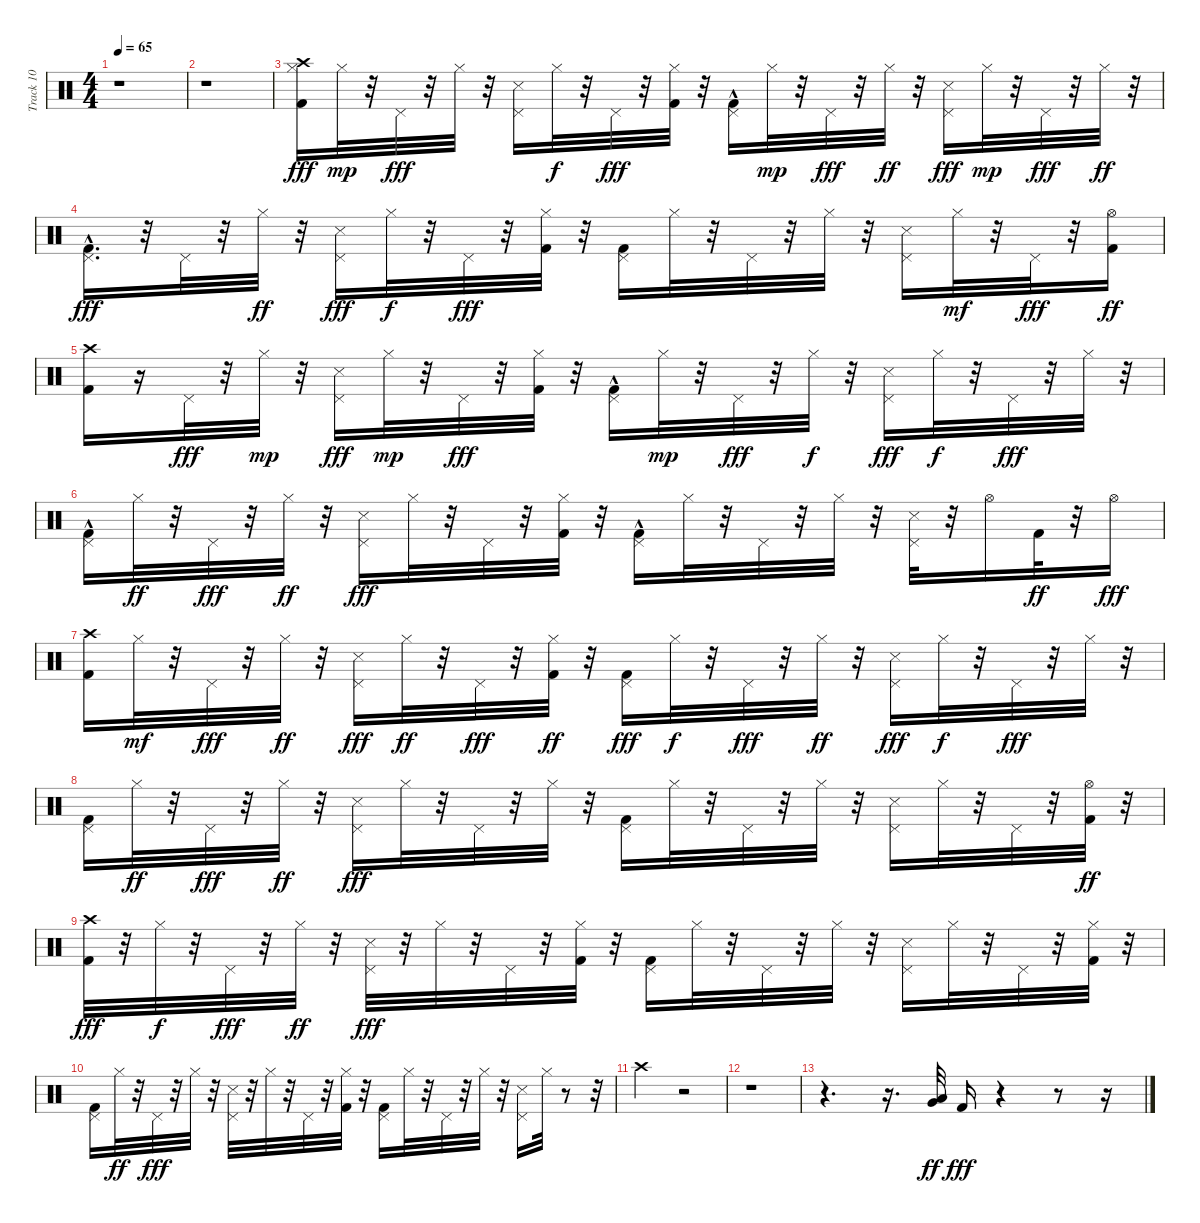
\track ("Track 10" "Track 10") {instrument percussion}
\staff {score}
\articulation defaults
\ts (4 4)
\tempo 65
\clef neutral
\ks c
r.1{dy fff} |
r.1 |
("Kick (hit) 2" "Hi-Hat (closed)" "Crash high (hit)").16 "Hi-Hat (closed)".32{dy mp} r.32 "Pedal Hi-Hat (hit)".32{dy fff} r.32 "Hi-Hat (closed)".32 r.32 ("Snare (side stick) 3" "Pedal Hi-Hat (hit)").16 "Hi-Hat (closed)".32{dy f} r.32 "Pedal Hi-Hat (hit)".32{dy fff} r.32 ("Kick (hit) 2" "Hi-Hat (closed)").32 r.32 ("Kick (hit) 2"{hac} "Pedal Hi-Hat (hit)").16 "Hi-Hat (closed)".32{dy mp} r.32 "Pedal Hi-Hat (hit)".32{dy fff} r.32 "Hi-Hat (closed)".32{dy ff} r.32 ("Snare (side stick) 3" "Pedal Hi-Hat (hit)").16{dy fff} "Hi-Hat (closed)".32{dy mp} r.32 "Pedal Hi-Hat (hit)".32{dy fff} r.32 "Hi-Hat (closed)".32{dy ff} r.32 |
("Kick (hit) 2"{hac} "Pedal Hi-Hat (hit)").16{d dy fff} r.32 "Pedal Hi-Hat (hit)".32 r.32 "Hi-Hat (closed)".32{dy ff} r.32 ("Snare (side stick) 3" "Pedal Hi-Hat (hit)").16{dy fff} "Hi-Hat (closed)".32{dy f} r.32 "Pedal Hi-Hat (hit)".32{dy fff} r.32 ("Hi-Hat (closed)" "Kick (hit) 2").32 r.32 ("Pedal Hi-Hat (hit)" "Kick (hit) 2").16 "Hi-Hat (closed)".32 r.32 "Pedal Hi-Hat (hit)".32 r.32 "Hi-Hat (closed)".32 r.32 ("Pedal Hi-Hat (hit)" "Snare (side stick) 3").16 "Hi-Hat (closed)".32{dy mf} r.32 "Pedal Hi-Hat (hit)".32{dy fff} r.32 ("Hi-Hat (open)" "Kick (hit) 2").16{dy ff} |
("Kick (hit) 2" "Crash high (hit)").16 r.16 "Pedal Hi-Hat (hit)".32{dy fff} r.32 "Hi-Hat (closed)".32{dy mp} r.32 ("Snare (side stick) 3" "Pedal Hi-Hat (hit)").16{dy fff} "Hi-Hat (closed)".32{dy mp} r.32 "Pedal Hi-Hat (hit)".32{dy fff} r.32 ("Kick (hit) 2" "Hi-Hat (closed)").32 r.32 ("Pedal Hi-Hat (hit)" "Kick (hit) 2"{hac}).16 "Hi-Hat (closed)".32{dy mp} r.32 "Pedal Hi-Hat (hit)".32{dy fff} r.32 "Hi-Hat (closed)".32{dy f} r.32 ("Snare (side stick) 3" "Pedal Hi-Hat (hit)").16{dy fff} "Hi-Hat (closed)".32{dy f} r.32 "Pedal Hi-Hat (hit)".32{dy fff} r.32 "Hi-Hat (closed)".32 r.32 |
("Kick (hit) 2"{hac} "Pedal Hi-Hat (hit)").16 "Hi-Hat (closed)".32{dy ff} r.32 "Pedal Hi-Hat (hit)".32{dy fff} r.32 "Hi-Hat (closed)".32{dy ff} r.32 ("Snare (side stick) 3" "Pedal Hi-Hat (hit)").16{dy fff} "Hi-Hat (closed)".32 r.32 "Pedal Hi-Hat (hit)".32 r.32 ("Kick (hit) 2" "Hi-Hat (closed)").32 r.32 ("Kick (hit) 2"{hac} "Pedal Hi-Hat (hit)").16 "Hi-Hat (closed)".32 r.32 "Pedal Hi-Hat (hit)".32 r.32 "Hi-Hat (closed)".32 r.32 ("Snare (side stick) 3" "Pedal Hi-Hat (hit)").32 r.32 "Hi-Hat (open)".16 "Kick (hit) 2".32{dy ff} r.32 "Hi-Hat (open)".16{dy fff} |
("Kick (hit) 2" "Crash high (hit)").16 "Hi-Hat (closed)".32{dy mf} r.32 "Pedal Hi-Hat (hit)".32{dy fff} r.32 "Hi-Hat (closed)".32{dy ff} r.32 ("Snare (side stick) 3" "Pedal Hi-Hat (hit)").16{dy fff} "Hi-Hat (closed)".32{dy ff} r.32 "Pedal Hi-Hat (hit)".32{dy fff} r.32 ("Hi-Hat (closed)" "Kick (hit) 2").32{dy ff} r.32 ("Kick (hit) 2" "Pedal Hi-Hat (hit)").16{dy fff} "Hi-Hat (closed)".32{dy f} r.32 "Pedal Hi-Hat (hit)".32{dy fff} r.32 "Hi-Hat (closed)".32{dy ff} r.32 ("Snare (side stick) 3" "Pedal Hi-Hat (hit)").16{dy fff} "Hi-Hat (closed)".32{dy f} r.32 "Pedal Hi-Hat (hit)".32{dy fff} r.32 "Hi-Hat (closed)".32 r.32 |
("Kick (hit) 2" "Pedal Hi-Hat (hit)").16 "Hi-Hat (closed)".32{dy ff} r.32 "Pedal Hi-Hat (hit)".32{dy fff} r.32 "Hi-Hat (closed)".32{dy ff} r.32 ("Snare (side stick) 3" "Pedal Hi-Hat (hit)").16{dy fff} "Hi-Hat (closed)".32 r.32 "Pedal Hi-Hat (hit)".32 r.32 "Hi-Hat (closed)".32 r.32 ("Kick (hit) 2" "Pedal Hi-Hat (hit)").16 "Hi-Hat (closed)".32 r.32 "Pedal Hi-Hat (hit)".32 r.32 "Hi-Hat (closed)".32 r.32 ("Snare (side stick) 3" "Pedal Hi-Hat (hit)").16 "Hi-Hat (closed)".32 r.32 "Pedal Hi-Hat (hit)".32 r.32 ("Hi-Hat (open)" "Kick (hit) 2").32{dy ff} r.32 |
("Kick (hit) 2" "Crash high (hit)").32{dy fff} r.32 "Hi-Hat (closed)".32{dy f} r.32 "Pedal Hi-Hat (hit)".32{dy fff} r.32 "Hi-Hat (closed)".32{dy ff} r.32 ("Snare (side stick) 3" "Pedal Hi-Hat (hit)").32{dy fff} r.32 "Hi-Hat (closed)".32 r.32 "Pedal Hi-Hat (hit)".32 r.32 ("Kick (hit) 2" "Hi-Hat (closed)").32 r.32 ("Pedal Hi-Hat (hit)" "Kick (hit) 2").16 "Hi-Hat (closed)".32 r.32 "Pedal Hi-Hat (hit)".32 r.32 "Hi-Hat (closed)".32 r.32 ("Snare (side stick) 3" "Pedal Hi-Hat (hit)").16 "Hi-Hat (closed)".32 r.32 "Pedal Hi-Hat (hit)".32 r.32 ("Kick (hit) 2" "Hi-Hat (closed)").32 r.32 |
("Kick (hit) 2" "Pedal Hi-Hat (hit)").16 "Hi-Hat (closed)".32{dy ff} r.32 "Pedal Hi-Hat (hit)".32{dy fff} r.32 "Hi-Hat (closed)".32 r.32 ("Snare (side stick) 3" "Pedal Hi-Hat (hit)").32 r.32 "Hi-Hat (closed)".32 r.32 "Pedal Hi-Hat (hit)".32 r.32 ("Kick (hit) 2" "Hi-Hat (closed)").32 r.32 ("Pedal Hi-Hat (hit)" "Kick (hit) 2").16 "Hi-Hat (closed)".32 r.32 "Pedal Hi-Hat (hit)".32 r.32 "Hi-Hat (closed)".32 r.32 ("Snare (side stick) 3" "Pedal Hi-Hat (hit)").16 "Hi-Hat (closed)".32 r.8 r.32 |
"Crash high (hit)".2 r.2 |
r.1 |
r.4{d} r.16{d} ("Very Low Tom (hit)" "Low Floor Tom (hit)").32{dy ff} "Kick (hit) 2".16{dy fff} r.4 r.8 r.16
